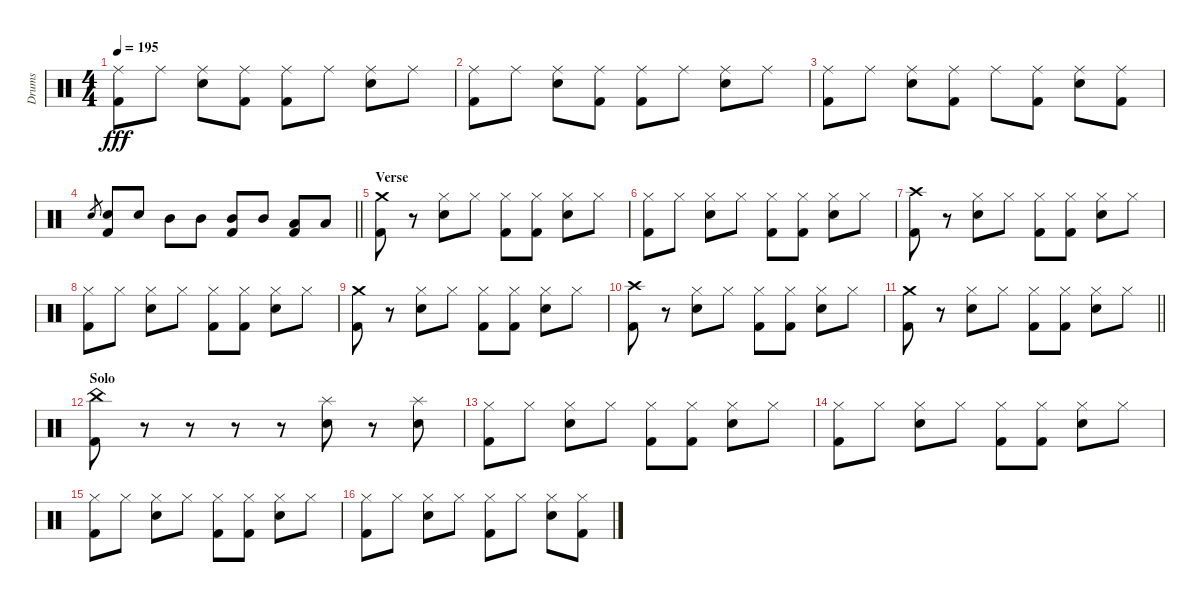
\track ("Drums" "Drums") {instrument percussion}
\staff {score}
\articulation defaults
\ts (4 4)
\tempo 195
\clef neutral
\ks c
("Ride (middle)" "Kick (hit) 2").8{dy fff} "Ride (middle)".8 ("Ride (middle)" "Snare (hit) 2").8 ("Ride (middle)" "Kick (hit) 2").8 ("Ride (middle)" "Kick (hit) 2").8 "Ride (middle)".8 ("Ride (middle)" "Snare (hit) 2").8 "Ride (middle)".8 |
("Ride (middle)" "Kick (hit) 2").8 "Ride (middle)".8 ("Ride (middle)" "Snare (hit) 2").8 ("Ride (middle)" "Kick (hit) 2").8 ("Ride (middle)" "Kick (hit) 2").8 "Ride (middle)".8 ("Ride (middle)" "Snare (hit) 2").8 "Ride (middle)".8 |
("Ride (middle)" "Kick (hit) 2").8 "Ride (middle)".8 ("Ride (middle)" "Snare (hit) 2").8 ("Ride (middle)" "Kick (hit) 2").8 "Ride (middle)".8 ("Ride (middle)" "Kick (hit) 2").8 ("Ride (middle)" "Snare (hit) 2").8 ("Ride (middle)" "Kick (hit) 2").8 |
\barLineRight lightlight "Snare (hit) 2".8{gr}
("Snare (hit) 2" "Kick (hit) 2").8 "Snare (hit) 2".8 "Mid Tom (hit)".8 "Mid Tom (hit)".8 ("Mid Tom (hit)" "Kick (hit) 2").8 "Mid Tom (hit)".8 ("Low Tom (hit)" "Kick (hit) 2").8 "Low Tom (hit)".8 |
\section ("" "Verse")
("Crash medium (hit)" "Kick (hit) 2").8 r.8 ("Hi-Hat (closed)" "Snare (hit) 2").8 "Hi-Hat (closed)".8 ("Hi-Hat (closed)" "Kick (hit) 2").8 ("Hi-Hat (closed)" "Kick (hit) 2").8 ("Hi-Hat (closed)" "Snare (hit) 2").8 "Hi-Hat (closed)".8 |
("Hi-Hat (closed)" "Kick (hit) 2").8 "Hi-Hat (closed)".8 ("Hi-Hat (closed)" "Snare (hit) 2").8 "Hi-Hat (closed)".8 ("Hi-Hat (closed)" "Kick (hit) 2").8 ("Hi-Hat (closed)" "Kick (hit) 2").8 ("Hi-Hat (closed)" "Snare (hit) 2").8 "Hi-Hat (closed)".8 |
("Crash high (hit)" "Kick (hit) 2").8 r.8 ("Hi-Hat (closed)" "Snare (hit) 2").8 "Hi-Hat (closed)".8 ("Hi-Hat (closed)" "Kick (hit) 2").8 ("Hi-Hat (closed)" "Kick (hit) 2").8 ("Hi-Hat (closed)" "Snare (hit) 2").8 "Hi-Hat (closed)".8 |
("Hi-Hat (closed)" "Kick (hit) 2").8 "Hi-Hat (closed)".8 ("Hi-Hat (closed)" "Snare (hit) 2").8 "Hi-Hat (closed)".8 ("Hi-Hat (closed)" "Kick (hit) 2").8 ("Hi-Hat (closed)" "Kick (hit) 2").8 ("Hi-Hat (closed)" "Snare (hit) 2").8 "Hi-Hat (closed)".8 |
("Crash medium (hit)" "Kick (hit) 2").8 r.8 ("Hi-Hat (closed)" "Snare (hit) 2").8 "Hi-Hat (closed)".8 ("Hi-Hat (closed)" "Kick (hit) 2").8 ("Hi-Hat (closed)" "Kick (hit) 2").8 ("Hi-Hat (closed)" "Snare (hit) 2").8 "Hi-Hat (closed)".8 |
("Crash high (hit)" "Kick (hit) 2").8 r.8 ("Hi-Hat (closed)" "Snare (hit) 2").8 "Hi-Hat (closed)".8 ("Hi-Hat (closed)" "Kick (hit) 2").8 ("Hi-Hat (closed)" "Kick (hit) 2").8 ("Hi-Hat (closed)" "Snare (hit) 2").8 "Hi-Hat (closed)".8 |
\barLineRight lightlight
("Crash medium (hit)" "Kick (hit) 2").8 r.8 ("Hi-Hat (closed)" "Snare (hit) 2").8 "Hi-Hat (closed)".8 ("Hi-Hat (closed)" "Kick (hit) 2").8 ("Hi-Hat (closed)" "Kick (hit) 2").8 ("Hi-Hat (closed)" "Snare (hit) 2").8 "Hi-Hat (closed)".8 |
\section ("" "Solo")
("China (hit)" "Kick (hit) 2").8 r.8 r.8 r.8 r.8 ("Splash (hit)" "Snare (hit) 2").8 r.8 ("Splash (hit)" "Snare (hit) 2").8 |
("Hi-Hat (closed)" "Kick (hit) 2").8 "Hi-Hat (closed)".8 ("Hi-Hat (closed)" "Snare (hit) 2").8 "Hi-Hat (closed)".8 ("Hi-Hat (closed)" "Kick (hit) 2").8 ("Hi-Hat (closed)" "Kick (hit) 2").8 ("Hi-Hat (closed)" "Snare (hit) 2").8 "Hi-Hat (closed)".8 |
("Hi-Hat (closed)" "Kick (hit) 2").8 "Hi-Hat (closed)".8 ("Hi-Hat (closed)" "Snare (hit) 2").8 "Hi-Hat (closed)".8 ("Hi-Hat (closed)" "Kick (hit) 2").8 ("Hi-Hat (closed)" "Kick (hit) 2").8 ("Hi-Hat (closed)" "Snare (hit) 2").8 "Hi-Hat (closed)".8 |
("Hi-Hat (closed)" "Kick (hit) 2").8 "Hi-Hat (closed)".8 ("Hi-Hat (closed)" "Snare (hit) 2").8 "Hi-Hat (closed)".8 ("Hi-Hat (closed)" "Kick (hit) 2").8 ("Hi-Hat (closed)" "Kick (hit) 2").8 ("Hi-Hat (closed)" "Snare (hit) 2").8 "Hi-Hat (closed)".8 |
("Hi-Hat (closed)" "Kick (hit) 2").8 "Hi-Hat (closed)".8 ("Hi-Hat (closed)" "Snare (hit) 2").8 "Hi-Hat (closed)".8 ("Hi-Hat (closed)" "Kick (hit) 2").8 "Hi-Hat (closed)".8 ("Hi-Hat (closed)" "Snare (hit) 2").8 ("Hi-Hat (closed)" "Kick (hit) 2").8
